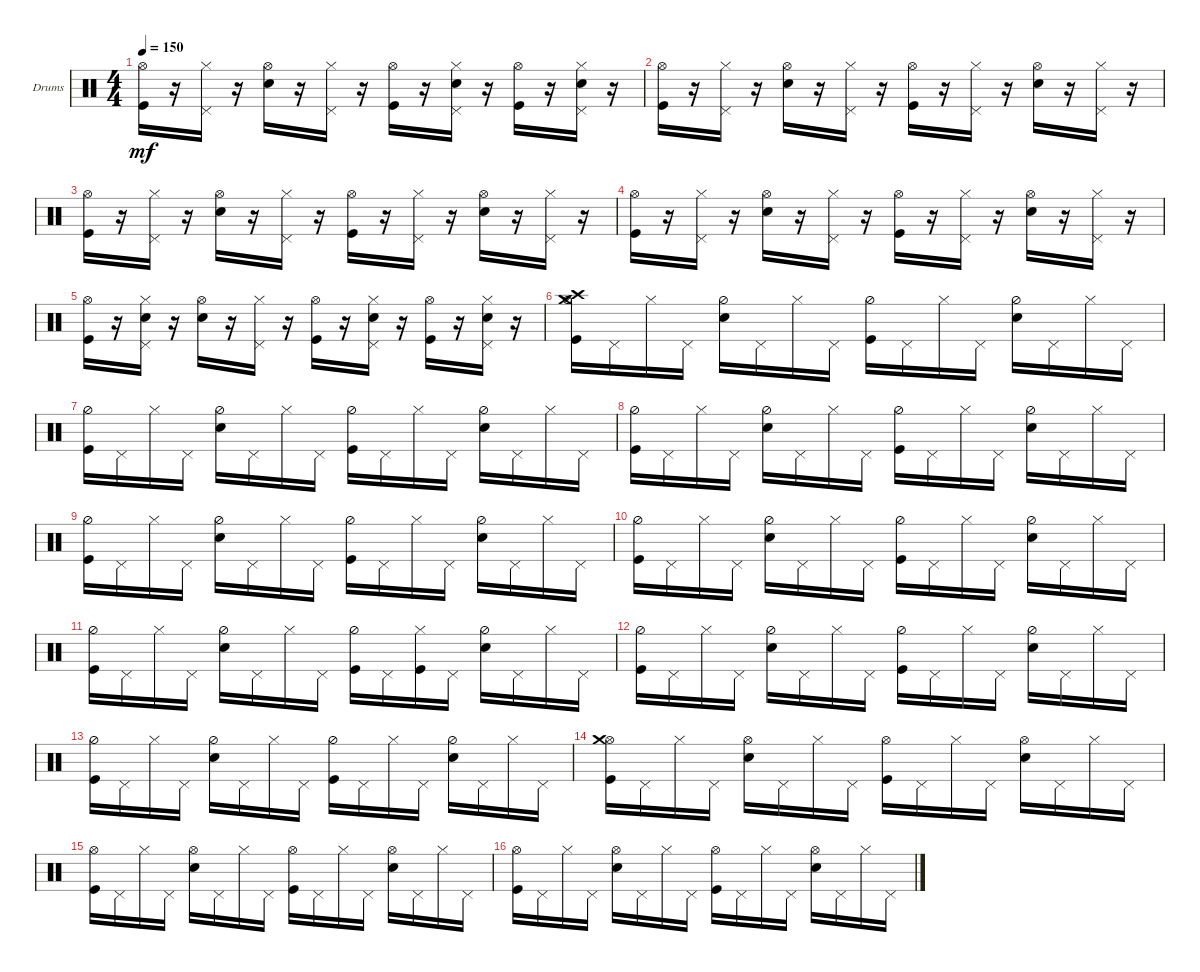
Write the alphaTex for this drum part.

\bracketExtendMode groupsimilarinstruments
\firstSystemTrackNameOrientation horizontal
\otherSystemsTrackNameOrientation horizontal
\track ("Drumkit" "Drums") {solo instrument percussion}
\staff {score}
\articulation defaults
\ts (4 4)
\tempo 150
\clef neutral
\ks c
("Kick (hit)" "Hi-Hat (open)").16{dy mf} r.16 ("Hi-Hat (closed)" "Pedal Hi-Hat (hit)").16 r.16 ("Snare (hit) 2" "Hi-Hat (open)").16 r.16 ("Hi-Hat (closed)" "Pedal Hi-Hat (hit)").16 r.16 ("Kick (hit)" "Hi-Hat (open)").16 r.16 ("Hi-Hat (closed)" "Pedal Hi-Hat (hit)" "Snare (hit) 2").16 r.16 ("Hi-Hat (open)" "Kick (hit)").16 r.16 ("Hi-Hat (closed)" "Pedal Hi-Hat (hit)" "Snare (hit) 2").16 r.16 |
("Kick (hit)" "Hi-Hat (open)").16 r.16 ("Hi-Hat (closed)" "Pedal Hi-Hat (hit)").16 r.16 ("Snare (hit) 2" "Hi-Hat (open)").16 r.16 ("Hi-Hat (closed)" "Pedal Hi-Hat (hit)").16 r.16 ("Kick (hit)" "Hi-Hat (open)").16 r.16 ("Hi-Hat (closed)" "Pedal Hi-Hat (hit)").16 r.16 ("Snare (hit) 2" "Hi-Hat (open)").16 r.16 ("Hi-Hat (closed)" "Pedal Hi-Hat (hit)").16 r.16 |
("Kick (hit)" "Hi-Hat (open)").16 r.16 ("Hi-Hat (closed)" "Pedal Hi-Hat (hit)").16 r.16 ("Snare (hit) 2" "Hi-Hat (open)").16 r.16 ("Hi-Hat (closed)" "Pedal Hi-Hat (hit)").16 r.16 ("Kick (hit)" "Hi-Hat (open)").16 r.16 ("Hi-Hat (closed)" "Pedal Hi-Hat (hit)").16 r.16 ("Snare (hit) 2" "Hi-Hat (open)").16 r.16 ("Hi-Hat (closed)" "Pedal Hi-Hat (hit)").16 r.16 |
("Kick (hit)" "Hi-Hat (open)").16 r.16 ("Hi-Hat (closed)" "Pedal Hi-Hat (hit)").16 r.16 ("Snare (hit) 2" "Hi-Hat (open)").16 r.16 ("Hi-Hat (closed)" "Pedal Hi-Hat (hit)").16 r.16 ("Kick (hit)" "Hi-Hat (open)").16 r.16 ("Hi-Hat (closed)" "Pedal Hi-Hat (hit)").16 r.16 ("Snare (hit) 2" "Hi-Hat (open)").16 r.16 ("Hi-Hat (closed)" "Pedal Hi-Hat (hit)").16 r.16 |
("Kick (hit)" "Hi-Hat (open)").16 r.16 ("Hi-Hat (closed)" "Snare (hit) 2" "Pedal Hi-Hat (hit)").16 r.16 ("Snare (hit) 2" "Hi-Hat (open)").16 r.16 ("Hi-Hat (closed)" "Pedal Hi-Hat (hit)").16 r.16 ("Kick (hit)" "Hi-Hat (open)").16 r.16 ("Hi-Hat (closed)" "Snare (hit) 2" "Pedal Hi-Hat (hit)").16 r.16 ("Hi-Hat (open)" "Kick (hit)").16 r.16 ("Hi-Hat (closed)" "Snare (hit) 2" "Pedal Hi-Hat (hit)").16 r.16 |
("Kick (hit)" "Hi-Hat (half)" "Crash medium (hit)" "Crash high (hit)").16 "Pedal Hi-Hat (hit)".16 "Hi-Hat (closed)".16 "Pedal Hi-Hat (hit)".16 ("Snare (hit) 2" "Hi-Hat (half)").16 "Pedal Hi-Hat (hit)".16 "Hi-Hat (closed)".16 "Pedal Hi-Hat (hit)".16 ("Kick (hit)" "Hi-Hat (half)").16 "Pedal Hi-Hat (hit)".16 "Hi-Hat (closed)".16 "Pedal Hi-Hat (hit)".16 ("Snare (hit) 2" "Hi-Hat (half)").16 "Pedal Hi-Hat (hit)".16 "Hi-Hat (closed)".16 "Pedal Hi-Hat (hit)".16 |
("Kick (hit)" "Hi-Hat (half)").16 "Pedal Hi-Hat (hit)".16 "Hi-Hat (closed)".16 "Pedal Hi-Hat (hit)".16 ("Snare (hit) 2" "Hi-Hat (half)").16 "Pedal Hi-Hat (hit)".16 "Hi-Hat (closed)".16 "Pedal Hi-Hat (hit)".16 ("Kick (hit)" "Hi-Hat (half)").16 "Pedal Hi-Hat (hit)".16 "Hi-Hat (closed)".16 "Pedal Hi-Hat (hit)".16 ("Snare (hit) 2" "Hi-Hat (half)").16 "Pedal Hi-Hat (hit)".16 "Hi-Hat (closed)".16 "Pedal Hi-Hat (hit)".16 |
("Kick (hit)" "Hi-Hat (half)").16 "Pedal Hi-Hat (hit)".16 "Hi-Hat (closed)".16 "Pedal Hi-Hat (hit)".16 ("Snare (hit) 2" "Hi-Hat (half)").16 "Pedal Hi-Hat (hit)".16 "Hi-Hat (closed)".16 "Pedal Hi-Hat (hit)".16 ("Kick (hit)" "Hi-Hat (half)").16 "Pedal Hi-Hat (hit)".16 "Hi-Hat (closed)".16 "Pedal Hi-Hat (hit)".16 ("Snare (hit) 2" "Hi-Hat (half)").16 "Pedal Hi-Hat (hit)".16 "Hi-Hat (closed)".16 "Pedal Hi-Hat (hit)".16 |
("Kick (hit)" "Hi-Hat (half)").16 "Pedal Hi-Hat (hit)".16 "Hi-Hat (closed)".16 "Pedal Hi-Hat (hit)".16 ("Snare (hit) 2" "Hi-Hat (half)").16 "Pedal Hi-Hat (hit)".16 "Hi-Hat (closed)".16 "Pedal Hi-Hat (hit)".16 ("Kick (hit)" "Hi-Hat (half)").16 "Pedal Hi-Hat (hit)".16 "Hi-Hat (closed)".16 "Pedal Hi-Hat (hit)".16 ("Snare (hit) 2" "Hi-Hat (half)").16 "Pedal Hi-Hat (hit)".16 "Hi-Hat (closed)".16 "Pedal Hi-Hat (hit)".16 |
("Kick (hit)" "Hi-Hat (half)").16 "Pedal Hi-Hat (hit)".16 "Hi-Hat (closed)".16 "Pedal Hi-Hat (hit)".16 ("Snare (hit) 2" "Hi-Hat (half)").16 "Pedal Hi-Hat (hit)".16 "Hi-Hat (closed)".16 "Pedal Hi-Hat (hit)".16 ("Kick (hit)" "Hi-Hat (half)").16 "Pedal Hi-Hat (hit)".16 "Hi-Hat (closed)".16 "Pedal Hi-Hat (hit)".16 ("Snare (hit) 2" "Hi-Hat (half)").16 "Pedal Hi-Hat (hit)".16 "Hi-Hat (closed)".16 "Pedal Hi-Hat (hit)".16 |
("Kick (hit)" "Hi-Hat (half)").16 "Pedal Hi-Hat (hit)".16 "Hi-Hat (closed)".16 "Pedal Hi-Hat (hit)".16 ("Snare (hit) 2" "Hi-Hat (half)").16 "Pedal Hi-Hat (hit)".16 "Hi-Hat (closed)".16 "Pedal Hi-Hat (hit)".16 ("Kick (hit)" "Hi-Hat (half)").16 "Pedal Hi-Hat (hit)".16 ("Hi-Hat (closed)" "Kick (hit)").16 "Pedal Hi-Hat (hit)".16 ("Snare (hit) 2" "Hi-Hat (half)").16 "Pedal Hi-Hat (hit)".16 "Hi-Hat (closed)".16 "Pedal Hi-Hat (hit)".16 |
("Kick (hit)" "Hi-Hat (half)").16 "Pedal Hi-Hat (hit)".16 "Hi-Hat (closed)".16 "Pedal Hi-Hat (hit)".16 ("Snare (hit) 2" "Hi-Hat (half)").16 "Pedal Hi-Hat (hit)".16 "Hi-Hat (closed)".16 "Pedal Hi-Hat (hit)".16 ("Kick (hit)" "Hi-Hat (half)").16 "Pedal Hi-Hat (hit)".16 "Hi-Hat (closed)".16 "Pedal Hi-Hat (hit)".16 ("Snare (hit) 2" "Hi-Hat (half)").16 "Pedal Hi-Hat (hit)".16 "Hi-Hat (closed)".16 "Pedal Hi-Hat (hit)".16 |
("Kick (hit)" "Hi-Hat (half)").16 "Pedal Hi-Hat (hit)".16 "Hi-Hat (closed)".16 "Pedal Hi-Hat (hit)".16 ("Snare (hit) 2" "Hi-Hat (half)").16 "Pedal Hi-Hat (hit)".16 "Hi-Hat (closed)".16 "Pedal Hi-Hat (hit)".16 ("Kick (hit)" "Hi-Hat (half)").16 "Pedal Hi-Hat (hit)".16 "Hi-Hat (closed)".16 "Pedal Hi-Hat (hit)".16 ("Snare (hit) 2" "Hi-Hat (half)").16 "Pedal Hi-Hat (hit)".16 "Hi-Hat (closed)".16 "Pedal Hi-Hat (hit)".16 |
("Kick (hit)" "Hi-Hat (open)" "Crash medium (hit)").16 "Pedal Hi-Hat (hit)".16 "Hi-Hat (closed)".16 "Pedal Hi-Hat (hit)".16 ("Snare (hit) 2" "Hi-Hat (open)").16 "Pedal Hi-Hat (hit)".16 "Hi-Hat (closed)".16 "Pedal Hi-Hat (hit)".16 ("Kick (hit)" "Hi-Hat (open)").16 "Pedal Hi-Hat (hit)".16 "Hi-Hat (closed)".16 "Pedal Hi-Hat (hit)".16 ("Snare (hit) 2" "Hi-Hat (open)").16 "Pedal Hi-Hat (hit)".16 "Hi-Hat (closed)".16 "Pedal Hi-Hat (hit)".16 |
("Kick (hit)" "Hi-Hat (open)").16 "Pedal Hi-Hat (hit)".16 "Hi-Hat (closed)".16 "Pedal Hi-Hat (hit)".16 ("Snare (hit) 2" "Hi-Hat (open)").16 "Pedal Hi-Hat (hit)".16 "Hi-Hat (closed)".16 "Pedal Hi-Hat (hit)".16 ("Kick (hit)" "Hi-Hat (open)").16 "Pedal Hi-Hat (hit)".16 "Hi-Hat (closed)".16 "Pedal Hi-Hat (hit)".16 ("Snare (hit) 2" "Hi-Hat (open)").16 "Pedal Hi-Hat (hit)".16 "Hi-Hat (closed)".16 "Pedal Hi-Hat (hit)".16 |
("Kick (hit)" "Hi-Hat (open)").16 "Pedal Hi-Hat (hit)".16 "Hi-Hat (closed)".16 "Pedal Hi-Hat (hit)".16 ("Snare (hit) 2" "Hi-Hat (open)").16 "Pedal Hi-Hat (hit)".16 "Hi-Hat (closed)".16 "Pedal Hi-Hat (hit)".16 ("Kick (hit)" "Hi-Hat (open)").16 "Pedal Hi-Hat (hit)".16 "Hi-Hat (closed)".16 "Pedal Hi-Hat (hit)".16 ("Snare (hit) 2" "Hi-Hat (open)").16 "Pedal Hi-Hat (hit)".16 "Hi-Hat (closed)".16 "Pedal Hi-Hat (hit)".16
